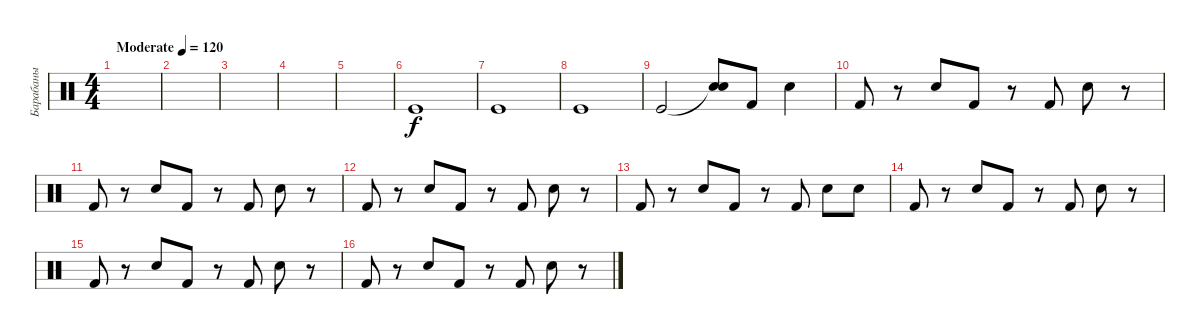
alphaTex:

\track ("Барабаны" "Барабаны") {instrument percussion}
\staff {score}
\articulation defaults
\ts (4 4)
\tempo (120 "Moderate")
\clef neutral
\ks c
|
|
|
|
|
"Kick (hit)".1 |
"Kick (hit)".1 |
"Kick (hit)".1 |
"Kick (hit)".2 ("Snare (hit)"{t} "Snare (hit)").8 "Kick (hit) 2".8 "Electric Snare (hit)".4 |
"Kick (hit) 2".8 r.8 "Electric Snare (hit)".8 "Kick (hit) 2".8 r.8 "Kick (hit) 2".8 "Electric Snare (hit)".8 r.8 |
"Kick (hit) 2".8 r.8 "Electric Snare (hit)".8 "Kick (hit) 2".8 r.8 "Kick (hit) 2".8 "Electric Snare (hit)".8 r.8 |
"Kick (hit) 2".8 r.8 "Electric Snare (hit)".8 "Kick (hit) 2".8 r.8 "Kick (hit) 2".8 "Electric Snare (hit)".8 r.8 |
"Kick (hit) 2".8 r.8 "Electric Snare (hit)".8 "Kick (hit) 2".8 r.8 "Kick (hit) 2".8 "Electric Snare (hit)".8 "Electric Snare (hit)".8 |
"Kick (hit) 2".8 r.8 "Electric Snare (hit)".8 "Kick (hit) 2".8 r.8 "Kick (hit) 2".8 "Electric Snare (hit)".8 r.8 |
"Kick (hit) 2".8 r.8 "Electric Snare (hit)".8 "Kick (hit) 2".8 r.8 "Kick (hit) 2".8 "Electric Snare (hit)".8 r.8 |
"Kick (hit) 2".8 r.8 "Electric Snare (hit)".8 "Kick (hit) 2".8 r.8 "Kick (hit) 2".8 "Electric Snare (hit)".8 r.8
